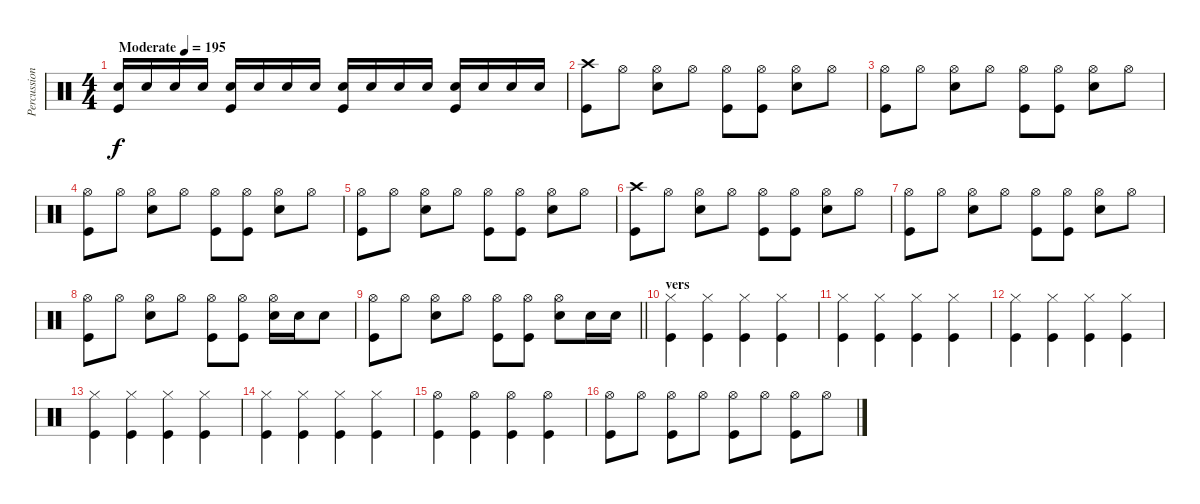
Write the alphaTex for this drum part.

\track ("Percussion" "Percussion") {instrument percussion}
\staff {score}
\articulation defaults
\ts (4 4)
\tempo (195 "Moderate")
\clef neutral
\ks c
("Snare (hit) 2" "Kick (hit)").16{dy f} "Snare (hit) 2".16 "Snare (hit) 2".16 "Snare (hit) 2".16 ("Snare (hit) 2" "Kick (hit)").16 "Snare (hit) 2".16 "Snare (hit) 2".16 "Snare (hit) 2".16 ("Snare (hit) 2" "Kick (hit)").16 "Snare (hit) 2".16 "Snare (hit) 2".16 "Snare (hit) 2".16 ("Snare (hit) 2" "Kick (hit)").16 "Snare (hit) 2".16 "Snare (hit) 2".16 "Snare (hit) 2".16 |
("Crash high (hit)" "Kick (hit)").8 "Hi-Hat (open)".8 ("Hi-Hat (open)" "Snare (hit) 2").8 "Hi-Hat (open)".8 ("Hi-Hat (open)" "Kick (hit)").8 ("Hi-Hat (open)" "Kick (hit)").8 ("Hi-Hat (open)" "Snare (hit) 2").8 "Hi-Hat (open)".8 |
("Hi-Hat (open)" "Kick (hit)").8 "Hi-Hat (open)".8 ("Hi-Hat (open)" "Snare (hit) 2").8 "Hi-Hat (open)".8 ("Hi-Hat (open)" "Kick (hit)").8 ("Hi-Hat (open)" "Kick (hit)").8 ("Hi-Hat (open)" "Snare (hit) 2").8 "Hi-Hat (open)".8 |
("Hi-Hat (open)" "Kick (hit)").8 "Hi-Hat (open)".8 ("Hi-Hat (open)" "Snare (hit) 2").8 "Hi-Hat (open)".8 ("Hi-Hat (open)" "Kick (hit)").8 ("Hi-Hat (open)" "Kick (hit)").8 ("Hi-Hat (open)" "Snare (hit) 2").8 "Hi-Hat (open)".8 |
("Hi-Hat (open)" "Kick (hit)").8 "Hi-Hat (open)".8 ("Hi-Hat (open)" "Snare (hit) 2").8 "Hi-Hat (open)".8 ("Hi-Hat (open)" "Kick (hit)").8 ("Hi-Hat (open)" "Kick (hit)").8 ("Hi-Hat (open)" "Snare (hit) 2").8 "Hi-Hat (open)".8 |
("Crash high (hit)" "Kick (hit)").8 "Hi-Hat (open)".8 ("Hi-Hat (open)" "Snare (hit) 2").8 "Hi-Hat (open)".8 ("Hi-Hat (open)" "Kick (hit)").8 ("Hi-Hat (open)" "Kick (hit)").8 ("Hi-Hat (open)" "Snare (hit) 2").8 "Hi-Hat (open)".8 |
("Hi-Hat (open)" "Kick (hit)").8 "Hi-Hat (open)".8 ("Hi-Hat (open)" "Snare (hit) 2").8 "Hi-Hat (open)".8 ("Hi-Hat (open)" "Kick (hit)").8 ("Hi-Hat (open)" "Kick (hit)").8 ("Hi-Hat (open)" "Snare (hit) 2").8 "Hi-Hat (open)".8 |
("Hi-Hat (open)" "Kick (hit)").8 "Hi-Hat (open)".8 ("Hi-Hat (open)" "Snare (hit) 2").8 "Hi-Hat (open)".8 ("Hi-Hat (open)" "Kick (hit)").8 ("Hi-Hat (open)" "Kick (hit)").8 ("Hi-Hat (open)" "Snare (hit) 2").16 "Snare (hit) 2".16 "Snare (hit) 2".8 |
\barLineRight lightlight
("Hi-Hat (open)" "Kick (hit)").8 "Hi-Hat (open)".8 ("Hi-Hat (open)" "Snare (hit) 2").8 "Hi-Hat (open)".8 ("Hi-Hat (open)" "Kick (hit)").8 ("Hi-Hat (open)" "Kick (hit)").8 ("Hi-Hat (open)" "Snare (hit) 2").8 "Snare (hit) 2".16 "Snare (hit) 2".16 |
\section ("" "vers")
("Hi-Hat (closed)" "Kick (hit)").4 ("Hi-Hat (closed)" "Kick (hit)").4 ("Hi-Hat (closed)" "Kick (hit)").4 ("Hi-Hat (closed)" "Kick (hit)").4 |
("Hi-Hat (closed)" "Kick (hit)").4 ("Hi-Hat (closed)" "Kick (hit)").4 ("Hi-Hat (closed)" "Kick (hit)").4 ("Hi-Hat (closed)" "Kick (hit)").4 |
("Hi-Hat (closed)" "Kick (hit)").4 ("Hi-Hat (closed)" "Kick (hit)").4 ("Hi-Hat (closed)" "Kick (hit)").4 ("Hi-Hat (closed)" "Kick (hit)").4 |
("Hi-Hat (closed)" "Kick (hit)").4 ("Hi-Hat (closed)" "Kick (hit)").4 ("Hi-Hat (closed)" "Kick (hit)").4 ("Hi-Hat (closed)" "Kick (hit)").4 |
("Hi-Hat (closed)" "Kick (hit)").4 ("Hi-Hat (closed)" "Kick (hit)").4 ("Hi-Hat (closed)" "Kick (hit)").4 ("Hi-Hat (closed)" "Kick (hit)").4 |
("Hi-Hat (open)" "Kick (hit)").4 ("Hi-Hat (open)" "Kick (hit)").4 ("Hi-Hat (open)" "Kick (hit)").4 ("Hi-Hat (open)" "Kick (hit)").4 |
("Hi-Hat (open)" "Kick (hit)").8 "Hi-Hat (open)".8 ("Hi-Hat (open)" "Kick (hit)").8 "Hi-Hat (open)".8 ("Hi-Hat (open)" "Kick (hit)").8 "Hi-Hat (open)".8 ("Hi-Hat (open)" "Kick (hit)").8 "Hi-Hat (open)".8
